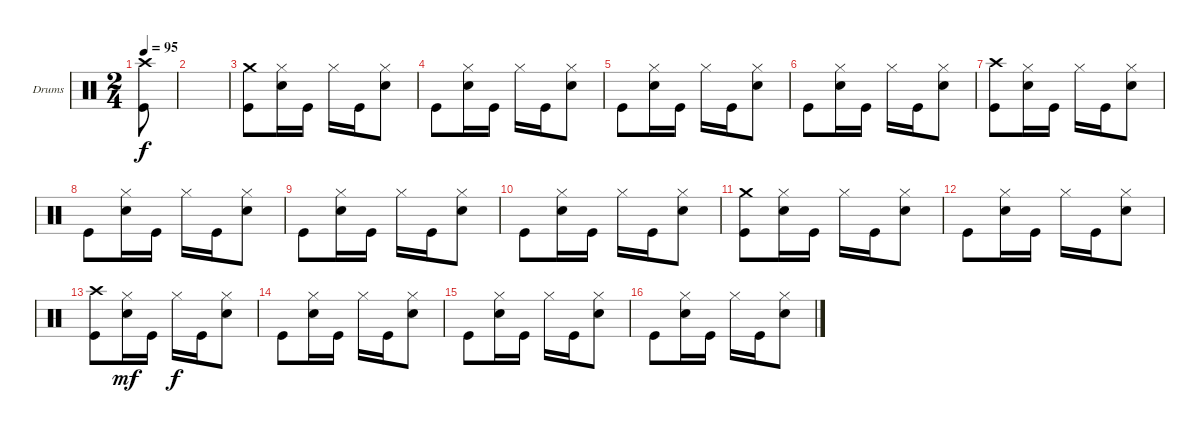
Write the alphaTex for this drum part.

\bracketExtendMode groupsimilarinstruments
\firstSystemTrackNameOrientation horizontal
\otherSystemsTrackNameOrientation horizontal
\track ("Drumkit" "Drums") {instrument percussion}
\staff {score}
\articulation defaults
\ts (2 4)
\tempo 95
\clef neutral
\ks c
("Kick (hit)" "Crash high (hit)").8{dy f} |
|
("Kick (hit)" "Crash medium (hit)").8 ("Hi-Hat (closed)" "Snare (hit) 2").16 "Kick (hit)".16 "Hi-Hat (closed)".16 "Kick (hit)".16 ("Hi-Hat (closed)" "Snare (hit) 2").8 |
"Kick (hit)".8 ("Hi-Hat (closed)" "Snare (hit) 2").16 "Kick (hit)".16 "Hi-Hat (closed)".16 "Kick (hit)".16 ("Hi-Hat (closed)" "Snare (hit) 2").8 |
"Kick (hit)".8 ("Hi-Hat (closed)" "Snare (hit) 2").16 "Kick (hit)".16 "Hi-Hat (closed)".16 "Kick (hit)".16 ("Hi-Hat (closed)" "Snare (hit) 2").8 |
"Kick (hit)".8 ("Hi-Hat (closed)" "Snare (hit) 2").16 "Kick (hit)".16 "Hi-Hat (closed)".16 "Kick (hit)".16 ("Hi-Hat (closed)" "Snare (hit) 2").8 |
("Kick (hit)" "Crash high (hit)").8 ("Hi-Hat (closed)" "Snare (hit) 2").16 "Kick (hit)".16 "Hi-Hat (closed)".16 "Kick (hit)".16 ("Hi-Hat (closed)" "Snare (hit) 2").8 |
"Kick (hit)".8 ("Hi-Hat (closed)" "Snare (hit) 2").16 "Kick (hit)".16 "Hi-Hat (closed)".16 "Kick (hit)".16 ("Hi-Hat (closed)" "Snare (hit) 2").8 |
"Kick (hit)".8 ("Hi-Hat (closed)" "Snare (hit) 2").16 "Kick (hit)".16 "Hi-Hat (closed)".16 "Kick (hit)".16 ("Hi-Hat (closed)" "Snare (hit) 2").8 |
"Kick (hit)".8 ("Hi-Hat (closed)" "Snare (hit) 2").16 "Kick (hit)".16 "Hi-Hat (closed)".16 "Kick (hit)".16 ("Hi-Hat (closed)" "Snare (hit) 2").8 |
("Kick (hit)" "Crash medium (hit)").8 ("Hi-Hat (closed)" "Snare (hit) 2").16 "Kick (hit)".16 "Hi-Hat (closed)".16 "Kick (hit)".16 ("Hi-Hat (closed)" "Snare (hit) 2").8 |
"Kick (hit)".8 ("Hi-Hat (closed)" "Snare (hit) 2").16 "Kick (hit)".16 "Hi-Hat (closed)".16 "Kick (hit)".16 ("Hi-Hat (closed)" "Snare (hit) 2").8 |
("Kick (hit)" "Crash high (hit)").8 ("Snare (hit) 2" "Hi-Hat (closed)").16{dy mf} "Kick (hit)".16 "Hi-Hat (closed)".16{dy f} "Kick (hit)".16 ("Hi-Hat (closed)" "Snare (hit) 2").8 |
"Kick (hit)".8 ("Hi-Hat (closed)" "Snare (hit) 2").16 "Kick (hit)".16 "Hi-Hat (closed)".16 "Kick (hit)".16 ("Hi-Hat (closed)" "Snare (hit) 2").8 |
"Kick (hit)".8 ("Hi-Hat (closed)" "Snare (hit) 2").16 "Kick (hit)".16 "Hi-Hat (closed)".16 "Kick (hit)".16 ("Hi-Hat (closed)" "Snare (hit) 2").8 |
"Kick (hit)".8 ("Hi-Hat (closed)" "Snare (hit) 2").16 "Kick (hit)".16 "Hi-Hat (closed)".16 "Kick (hit)".16 ("Hi-Hat (closed)" "Snare (hit) 2").8
